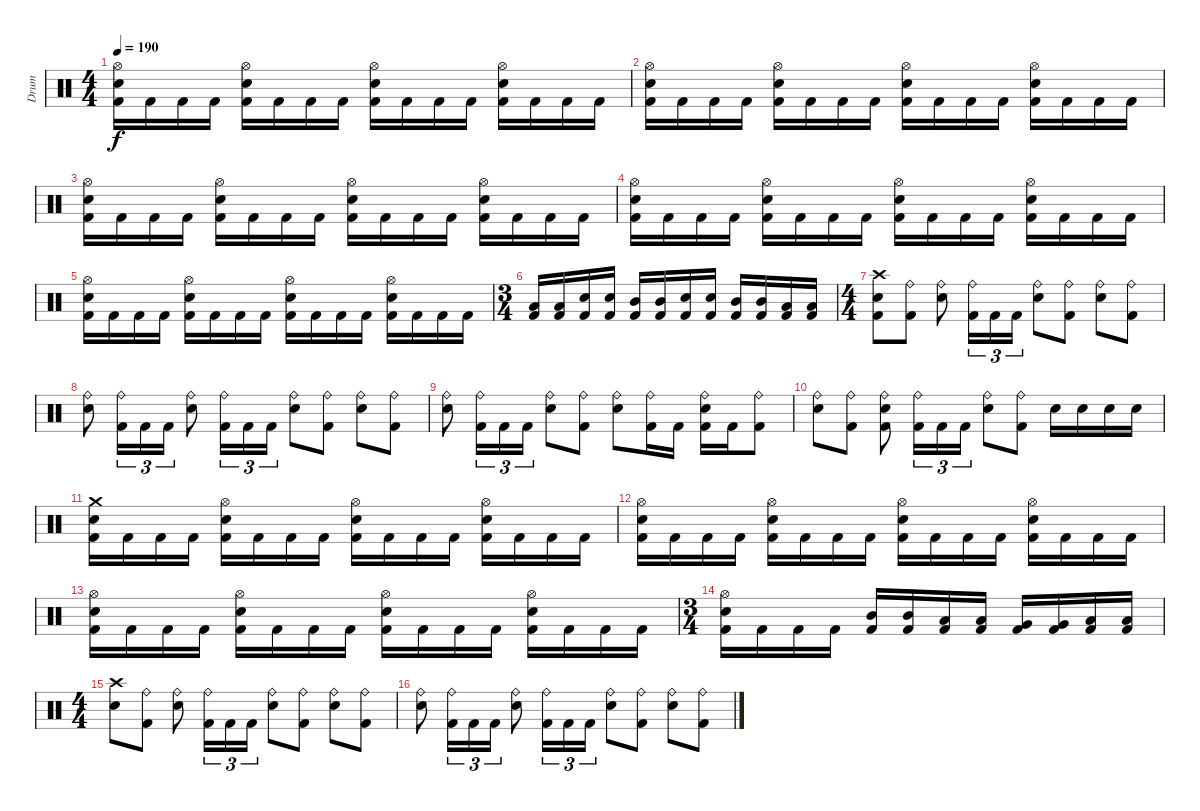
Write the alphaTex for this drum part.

\track ("Drum" "Drum") {instrument percussion}
\staff {score}
\articulation defaults
\ts (4 4)
\tempo 190
\clef neutral
\ks c
("Kick (hit) 2" "Snare (hit) 2" "Hi-Hat (open)").16{dy f} "Kick (hit) 2".16 "Kick (hit) 2".16 "Kick (hit) 2".16 ("Kick (hit) 2" "Snare (hit) 2" "Hi-Hat (open)").16 "Kick (hit) 2".16 "Kick (hit) 2".16 "Kick (hit) 2".16 ("Kick (hit) 2" "Snare (hit) 2" "Hi-Hat (open)").16 "Kick (hit) 2".16 "Kick (hit) 2".16 "Kick (hit) 2".16 ("Kick (hit) 2" "Snare (hit) 2" "Hi-Hat (open)").16 "Kick (hit) 2".16 "Kick (hit) 2".16 "Kick (hit) 2".16 |
("Kick (hit) 2" "Snare (hit) 2" "Hi-Hat (open)").16 "Kick (hit) 2".16 "Kick (hit) 2".16 "Kick (hit) 2".16 ("Kick (hit) 2" "Snare (hit) 2" "Hi-Hat (open)").16 "Kick (hit) 2".16 "Kick (hit) 2".16 "Kick (hit) 2".16 ("Kick (hit) 2" "Snare (hit) 2" "Hi-Hat (open)").16 "Kick (hit) 2".16 "Kick (hit) 2".16 "Kick (hit) 2".16 ("Kick (hit) 2" "Snare (hit) 2" "Hi-Hat (open)").16 "Kick (hit) 2".16 "Kick (hit) 2".16 "Kick (hit) 2".16 |
("Kick (hit) 2" "Snare (hit) 2" "Hi-Hat (open)").16 "Kick (hit) 2".16 "Kick (hit) 2".16 "Kick (hit) 2".16 ("Kick (hit) 2" "Snare (hit) 2" "Hi-Hat (open)").16 "Kick (hit) 2".16 "Kick (hit) 2".16 "Kick (hit) 2".16 ("Kick (hit) 2" "Snare (hit) 2" "Hi-Hat (open)").16 "Kick (hit) 2".16 "Kick (hit) 2".16 "Kick (hit) 2".16 ("Kick (hit) 2" "Snare (hit) 2" "Hi-Hat (open)").16 "Kick (hit) 2".16 "Kick (hit) 2".16 "Kick (hit) 2".16 |
("Kick (hit) 2" "Snare (hit) 2" "Hi-Hat (open)").16 "Kick (hit) 2".16 "Kick (hit) 2".16 "Kick (hit) 2".16 ("Kick (hit) 2" "Snare (hit) 2" "Hi-Hat (open)").16 "Kick (hit) 2".16 "Kick (hit) 2".16 "Kick (hit) 2".16 ("Kick (hit) 2" "Snare (hit) 2" "Hi-Hat (open)").16 "Kick (hit) 2".16 "Kick (hit) 2".16 "Kick (hit) 2".16 ("Kick (hit) 2" "Snare (hit) 2" "Hi-Hat (open)").16 "Kick (hit) 2".16 "Kick (hit) 2".16 "Kick (hit) 2".16 |
("Kick (hit) 2" "Snare (hit) 2" "Hi-Hat (open)").16 "Kick (hit) 2".16 "Kick (hit) 2".16 "Kick (hit) 2".16 ("Kick (hit) 2" "Snare (hit) 2" "Hi-Hat (open)").16 "Kick (hit) 2".16 "Kick (hit) 2".16 "Kick (hit) 2".16 ("Kick (hit) 2" "Snare (hit) 2" "Hi-Hat (open)").16 "Kick (hit) 2".16 "Kick (hit) 2".16 "Kick (hit) 2".16 ("Kick (hit) 2" "Snare (hit) 2" "Hi-Hat (open)").16 "Kick (hit) 2".16 "Kick (hit) 2".16 "Kick (hit) 2".16 |
\ts (3 4)
("Kick (hit) 2" "Low Tom (hit)").16 ("Kick (hit) 2" "Low Tom (hit)").16 ("Kick (hit) 2" "Snare (hit) 2").16 ("Kick (hit) 2" "Snare (hit) 2").16 ("Kick (hit) 2" "Mid Tom (hit)").16 ("Kick (hit) 2" "Mid Tom (hit)").16 ("Kick (hit) 2" "Snare (hit) 2").16 ("Kick (hit) 2" "Snare (hit) 2").16 ("Kick (hit) 2" "Mid Tom (hit)").16 ("Kick (hit) 2" "Mid Tom (hit)").16 ("Kick (hit) 2" "Low Tom (hit)").16 ("Kick (hit) 2" "Low Tom (hit)").16 |
\ts (4 4)
("Kick (hit) 2" "Snare (hit) 2" "Crash high (hit)").8 ("Kick (hit) 2" "Ride (bell)").8 ("Snare (hit) 2" "Ride (bell)").8 ("Kick (hit) 2" "Ride (bell)").16{tu (3 2)} "Kick (hit) 2".16{tu (3 2)} "Kick (hit) 2".16{tu (3 2)} ("Snare (hit) 2" "Ride (bell)").8 ("Kick (hit) 2" "Ride (bell)").8 ("Snare (hit) 2" "Ride (bell)").8 ("Kick (hit) 2" "Ride (bell)").8 |
("Snare (hit) 2" "Ride (bell)").8 ("Kick (hit) 2" "Ride (bell)").16{tu (3 2)} "Kick (hit) 2".16{tu (3 2)} "Kick (hit) 2".16{tu (3 2)} ("Snare (hit) 2" "Ride (bell)").8 ("Kick (hit) 2" "Ride (bell)").16{tu (3 2)} "Kick (hit) 2".16{tu (3 2)} "Kick (hit) 2".16{tu (3 2)} ("Snare (hit) 2" "Ride (bell)").8 ("Kick (hit) 2" "Ride (bell)").8 ("Snare (hit) 2" "Ride (bell)").8 ("Kick (hit) 2" "Ride (bell)").8 |
("Snare (hit) 2" "Ride (bell)").8 ("Kick (hit) 2" "Ride (bell)").16{tu (3 2)} "Kick (hit) 2".16{tu (3 2)} "Kick (hit) 2".16{tu (3 2)} ("Snare (hit) 2" "Ride (bell)").8 ("Kick (hit) 2" "Ride (bell)").8 ("Snare (hit) 2" "Ride (bell)").8 ("Kick (hit) 2" "Ride (bell)").16 "Kick (hit) 2".16 ("Kick (hit) 2" "Snare (hit) 2" "Ride (bell)").16 "Kick (hit) 2".16 ("Kick (hit) 2" "Ride (bell)").8 |
("Snare (hit) 2" "Ride (bell)").8 ("Kick (hit) 2" "Ride (bell)").8 ("Kick (hit) 2" "Snare (hit) 2" "Ride (bell)").8 ("Kick (hit) 2" "Ride (bell)").16{tu (3 2)} "Kick (hit) 2".16{tu (3 2)} "Kick (hit) 2".16{tu (3 2)} ("Snare (hit) 2" "Ride (bell)").8 ("Kick (hit) 2" "Ride (bell)").8 "Snare (hit) 2".16 "Snare (hit) 2".16 "Snare (hit) 2".16 "Snare (hit) 2".16 |
("Kick (hit) 2" "Snare (hit) 2" "Crash medium (hit)").16 "Kick (hit) 2".16 "Kick (hit) 2".16 "Kick (hit) 2".16 ("Kick (hit) 2" "Snare (hit) 2" "Hi-Hat (open)").16 "Kick (hit) 2".16 "Kick (hit) 2".16 "Kick (hit) 2".16 ("Kick (hit) 2" "Snare (hit) 2" "Hi-Hat (open)").16 "Kick (hit) 2".16 "Kick (hit) 2".16 "Kick (hit) 2".16 ("Kick (hit) 2" "Snare (hit) 2" "Hi-Hat (open)").16 "Kick (hit) 2".16 "Kick (hit) 2".16 "Kick (hit) 2".16 |
("Kick (hit) 2" "Snare (hit) 2" "Hi-Hat (open)").16 "Kick (hit) 2".16 "Kick (hit) 2".16 "Kick (hit) 2".16 ("Kick (hit) 2" "Snare (hit) 2" "Hi-Hat (open)").16 "Kick (hit) 2".16 "Kick (hit) 2".16 "Kick (hit) 2".16 ("Kick (hit) 2" "Snare (hit) 2" "Hi-Hat (open)").16 "Kick (hit) 2".16 "Kick (hit) 2".16 "Kick (hit) 2".16 ("Kick (hit) 2" "Snare (hit) 2" "Hi-Hat (open)").16 "Kick (hit) 2".16 "Kick (hit) 2".16 "Kick (hit) 2".16 |
("Kick (hit) 2" "Snare (hit) 2" "Hi-Hat (open)").16 "Kick (hit) 2".16 "Kick (hit) 2".16 "Kick (hit) 2".16 ("Kick (hit) 2" "Snare (hit) 2" "Hi-Hat (open)").16 "Kick (hit) 2".16 "Kick (hit) 2".16 "Kick (hit) 2".16 ("Kick (hit) 2" "Snare (hit) 2" "Hi-Hat (open)").16 "Kick (hit) 2".16 "Kick (hit) 2".16 "Kick (hit) 2".16 ("Kick (hit) 2" "Snare (hit) 2" "Hi-Hat (open)").16 "Kick (hit) 2".16 "Kick (hit) 2".16 "Kick (hit) 2".16 |
\ts (3 4)
("Kick (hit) 2" "Snare (hit) 2" "Hi-Hat (open)").16 "Kick (hit) 2".16 "Kick (hit) 2".16 "Kick (hit) 2".16 ("Kick (hit) 2" "Mid Tom (hit)").16 ("Kick (hit) 2" "Mid Tom (hit)").16 ("Kick (hit) 2" "Low Tom (hit)").16 ("Kick (hit) 2" "Low Tom (hit)").16 ("Kick (hit) 2" "Very Low Tom (hit)").16 ("Kick (hit) 2" "Very Low Tom (hit)").16 ("Kick (hit) 2" "Low Floor Tom (hit)").16 ("Kick (hit) 2" "Low Floor Tom (hit)").16 |
\ts (4 4)
("Snare (hit) 2" "Crash high (hit)").8 ("Kick (hit) 2" "Ride (bell)").8 ("Snare (hit) 2" "Ride (bell)").8 ("Kick (hit) 2" "Ride (bell)").16{tu (3 2)} "Kick (hit) 2".16{tu (3 2)} "Kick (hit) 2".16{tu (3 2)} ("Snare (hit) 2" "Ride (bell)").8 ("Kick (hit) 2" "Ride (bell)").8 ("Snare (hit) 2" "Ride (bell)").8 ("Kick (hit) 2" "Ride (bell)").8 |
("Snare (hit) 2" "Ride (bell)").8 ("Kick (hit) 2" "Ride (bell)").16{tu (3 2)} "Kick (hit) 2".16{tu (3 2)} "Kick (hit) 2".16{tu (3 2)} ("Snare (hit) 2" "Ride (bell)").8 ("Kick (hit) 2" "Ride (bell)").16{tu (3 2)} "Kick (hit) 2".16{tu (3 2)} "Kick (hit) 2".16{tu (3 2)} ("Snare (hit) 2" "Ride (bell)").8 ("Kick (hit) 2" "Ride (bell)").8 ("Snare (hit) 2" "Ride (bell)").8 ("Kick (hit) 2" "Ride (bell)").8
